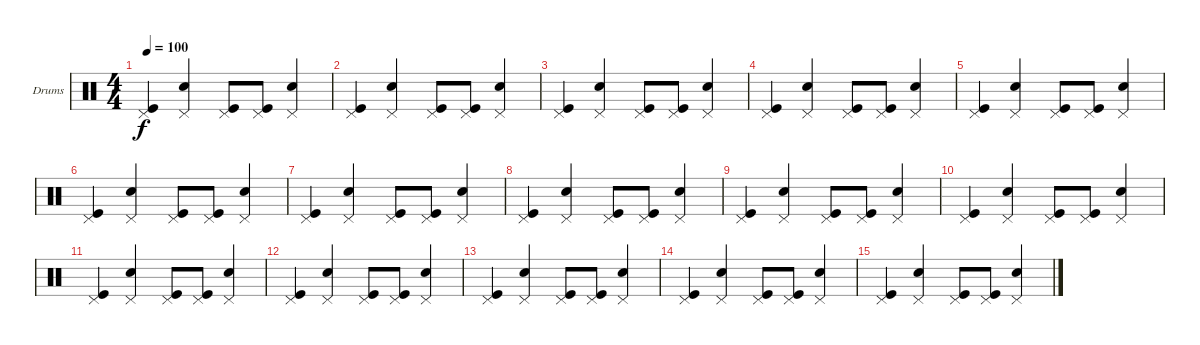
\bracketExtendMode groupsimilarinstruments
\firstSystemTrackNameOrientation horizontal
\otherSystemsTrackNameOrientation horizontal
\track ("Drumkit" "Drums") {instrument percussion}
\staff {score}
\articulation defaults
\ts (4 4)
\tempo 100
\clef neutral
\ks c
("Pedal Hi-Hat (hit)" "Kick (hit)").4{dy f} ("Pedal Hi-Hat (hit)" "Snare (hit) 2").4 ("Pedal Hi-Hat (hit)" "Kick (hit)").8 ("Pedal Hi-Hat (hit)" "Kick (hit)").8 ("Pedal Hi-Hat (hit)" "Snare (hit) 2").4 |
("Pedal Hi-Hat (hit)" "Kick (hit)").4 ("Pedal Hi-Hat (hit)" "Snare (hit) 2").4 ("Pedal Hi-Hat (hit)" "Kick (hit)").8 ("Pedal Hi-Hat (hit)" "Kick (hit)").8 ("Pedal Hi-Hat (hit)" "Snare (hit) 2").4 |
("Pedal Hi-Hat (hit)" "Kick (hit)").4 ("Pedal Hi-Hat (hit)" "Snare (hit) 2").4 ("Pedal Hi-Hat (hit)" "Kick (hit)").8 ("Pedal Hi-Hat (hit)" "Kick (hit)").8 ("Pedal Hi-Hat (hit)" "Snare (hit) 2").4 |
("Pedal Hi-Hat (hit)" "Kick (hit)").4 ("Pedal Hi-Hat (hit)" "Snare (hit) 2").4 ("Pedal Hi-Hat (hit)" "Kick (hit)").8 ("Pedal Hi-Hat (hit)" "Kick (hit)").8 ("Pedal Hi-Hat (hit)" "Snare (hit) 2").4 |
("Pedal Hi-Hat (hit)" "Kick (hit)").4 ("Pedal Hi-Hat (hit)" "Snare (hit) 2").4 ("Pedal Hi-Hat (hit)" "Kick (hit)").8 ("Pedal Hi-Hat (hit)" "Kick (hit)").8 ("Pedal Hi-Hat (hit)" "Snare (hit) 2").4 |
("Pedal Hi-Hat (hit)" "Kick (hit)").4 ("Pedal Hi-Hat (hit)" "Snare (hit) 2").4 ("Pedal Hi-Hat (hit)" "Kick (hit)").8 ("Pedal Hi-Hat (hit)" "Kick (hit)").8 ("Pedal Hi-Hat (hit)" "Snare (hit) 2").4 |
("Pedal Hi-Hat (hit)" "Kick (hit)").4 ("Pedal Hi-Hat (hit)" "Snare (hit) 2").4 ("Pedal Hi-Hat (hit)" "Kick (hit)").8 ("Pedal Hi-Hat (hit)" "Kick (hit)").8 ("Pedal Hi-Hat (hit)" "Snare (hit) 2").4 |
("Pedal Hi-Hat (hit)" "Kick (hit)").4 ("Pedal Hi-Hat (hit)" "Snare (hit) 2").4 ("Pedal Hi-Hat (hit)" "Kick (hit)").8 ("Pedal Hi-Hat (hit)" "Kick (hit)").8 ("Pedal Hi-Hat (hit)" "Snare (hit) 2").4 |
("Pedal Hi-Hat (hit)" "Kick (hit)").4 ("Pedal Hi-Hat (hit)" "Snare (hit) 2").4 ("Pedal Hi-Hat (hit)" "Kick (hit)").8 ("Pedal Hi-Hat (hit)" "Kick (hit)").8 ("Pedal Hi-Hat (hit)" "Snare (hit) 2").4 |
("Pedal Hi-Hat (hit)" "Kick (hit)").4 ("Pedal Hi-Hat (hit)" "Snare (hit) 2").4 ("Pedal Hi-Hat (hit)" "Kick (hit)").8 ("Pedal Hi-Hat (hit)" "Kick (hit)").8 ("Pedal Hi-Hat (hit)" "Snare (hit) 2").4 |
("Pedal Hi-Hat (hit)" "Kick (hit)").4 ("Pedal Hi-Hat (hit)" "Snare (hit) 2").4 ("Pedal Hi-Hat (hit)" "Kick (hit)").8 ("Pedal Hi-Hat (hit)" "Kick (hit)").8 ("Pedal Hi-Hat (hit)" "Snare (hit) 2").4 |
("Pedal Hi-Hat (hit)" "Kick (hit)").4 ("Pedal Hi-Hat (hit)" "Snare (hit) 2").4 ("Pedal Hi-Hat (hit)" "Kick (hit)").8 ("Pedal Hi-Hat (hit)" "Kick (hit)").8 ("Pedal Hi-Hat (hit)" "Snare (hit) 2").4 |
("Pedal Hi-Hat (hit)" "Kick (hit)").4 ("Pedal Hi-Hat (hit)" "Snare (hit) 2").4 ("Pedal Hi-Hat (hit)" "Kick (hit)").8 ("Pedal Hi-Hat (hit)" "Kick (hit)").8 ("Pedal Hi-Hat (hit)" "Snare (hit) 2").4 |
("Pedal Hi-Hat (hit)" "Kick (hit)").4 ("Pedal Hi-Hat (hit)" "Snare (hit) 2").4 ("Pedal Hi-Hat (hit)" "Kick (hit)").8 ("Pedal Hi-Hat (hit)" "Kick (hit)").8 ("Pedal Hi-Hat (hit)" "Snare (hit) 2").4 |
("Pedal Hi-Hat (hit)" "Kick (hit)").4 ("Pedal Hi-Hat (hit)" "Snare (hit) 2").4 ("Pedal Hi-Hat (hit)" "Kick (hit)").8 ("Pedal Hi-Hat (hit)" "Kick (hit)").8 ("Pedal Hi-Hat (hit)" "Snare (hit) 2").4
